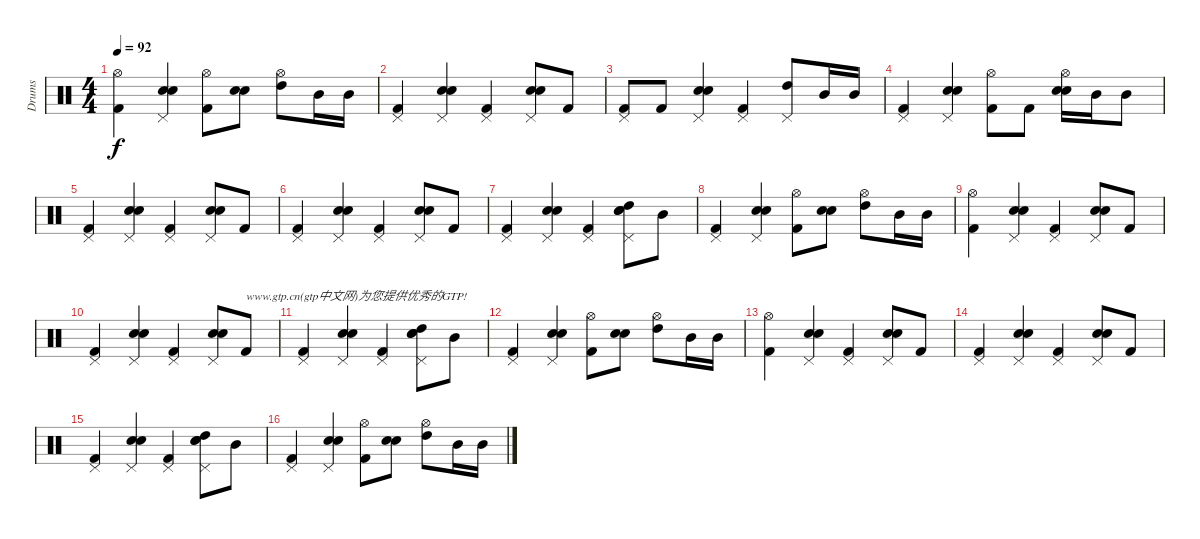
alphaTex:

\track ("Drums" "Drums") {instrument percussion}
\staff {score}
\articulation defaults
\ts (4 4)
\tempo 92
\clef neutral
\ks c
("Hi-Hat (open)" "Kick (hit) 2").4{dy f} ("Snare (hit) 2" "Electric Snare (hit)" "Pedal Hi-Hat (hit)").4 ("Hi-Hat (open)" "Kick (hit) 2").8 ("Snare (hit) 2" "Electric Snare (hit)").8 ("Hi-Hat (open)" "High Tom (hit)").8 "Mid Tom (hit)".16 "Mid Tom (hit)".16 |
("Kick (hit) 2" "Pedal Hi-Hat (hit)").4 ("Snare (hit) 2" "Electric Snare (hit)" "Pedal Hi-Hat (hit)").4 ("Kick (hit) 2" "Pedal Hi-Hat (hit)").4 ("Snare (hit) 2" "Electric Snare (hit)" "Pedal Hi-Hat (hit)").8 "Kick (hit) 2".8 |
("Kick (hit) 2" "Pedal Hi-Hat (hit)").8 "Kick (hit) 2".8 ("Snare (hit) 2" "Electric Snare (hit)" "Pedal Hi-Hat (hit)").4 ("Kick (hit) 2" "Pedal Hi-Hat (hit)").4 ("High Tom (hit)" "Pedal Hi-Hat (hit)").8 "Mid Tom (hit)".16 "Mid Tom (hit)".16 |
("Kick (hit) 2" "Pedal Hi-Hat (hit)").4 ("Snare (hit) 2" "Electric Snare (hit)" "Pedal Hi-Hat (hit)").4 ("Hi-Hat (open)" "Kick (hit) 2").8 "Kick (hit) 2".8 ("Hi-Hat (open)" "Snare (hit) 2" "Electric Snare (hit)").16 "Mid Tom (hit)".16 "Mid Tom (hit)".8 |
("Kick (hit) 2" "Pedal Hi-Hat (hit)").4 ("Snare (hit) 2" "Electric Snare (hit)" "Pedal Hi-Hat (hit)").4 ("Kick (hit) 2" "Pedal Hi-Hat (hit)").4 ("Snare (hit) 2" "Electric Snare (hit)" "Pedal Hi-Hat (hit)").8 "Kick (hit) 2".8 |
("Kick (hit) 2" "Pedal Hi-Hat (hit)").4 ("Snare (hit) 2" "Electric Snare (hit)" "Pedal Hi-Hat (hit)").4 ("Kick (hit) 2" "Pedal Hi-Hat (hit)").4 ("Snare (hit) 2" "Electric Snare (hit)" "Pedal Hi-Hat (hit)").8 "Kick (hit) 2".8 |
("Kick (hit) 2" "Pedal Hi-Hat (hit)").4 ("Snare (hit) 2" "Electric Snare (hit)" "Pedal Hi-Hat (hit)").4 ("Kick (hit) 2" "Pedal Hi-Hat (hit)").4 ("Snare (hit) 2" "Electric Snare (hit)" "High Tom (hit)" "Pedal Hi-Hat (hit)").8 "Mid Tom (hit)".8 |
("Kick (hit) 2" "Pedal Hi-Hat (hit)").4 ("Snare (hit) 2" "Electric Snare (hit)" "Pedal Hi-Hat (hit)").4 ("Hi-Hat (open)" "Kick (hit) 2").8 ("Snare (hit) 2" "Electric Snare (hit)").8 ("Hi-Hat (open)" "High Tom (hit)").8 "Mid Tom (hit)".16 "Mid Tom (hit)".16 |
("Hi-Hat (open)" "Kick (hit) 2").4 ("Snare (hit) 2" "Electric Snare (hit)" "Pedal Hi-Hat (hit)").4 ("Kick (hit) 2" "Pedal Hi-Hat (hit)").4 ("Snare (hit) 2" "Electric Snare (hit)" "Pedal Hi-Hat (hit)").8 "Kick (hit) 2".8 |
("Kick (hit) 2" "Pedal Hi-Hat (hit)").4 ("Snare (hit) 2" "Electric Snare (hit)" "Pedal Hi-Hat (hit)").4 ("Kick (hit) 2" "Pedal Hi-Hat (hit)").4 ("Snare (hit) 2" "Electric Snare (hit)" "Pedal Hi-Hat (hit)").8 "Kick (hit) 2".8{txt "www.gtp.cn(gtp中文网)为您提供优秀的GTP!"} |
("Kick (hit) 2" "Pedal Hi-Hat (hit)").4 ("Snare (hit) 2" "Electric Snare (hit)" "Pedal Hi-Hat (hit)").4 ("Kick (hit) 2" "Pedal Hi-Hat (hit)").4 ("Snare (hit) 2" "Electric Snare (hit)" "High Tom (hit)" "Pedal Hi-Hat (hit)").8 "Mid Tom (hit)".8 |
("Kick (hit) 2" "Pedal Hi-Hat (hit)").4 ("Snare (hit) 2" "Electric Snare (hit)" "Pedal Hi-Hat (hit)").4 ("Hi-Hat (open)" "Kick (hit) 2").8 ("Snare (hit) 2" "Electric Snare (hit)").8 ("Hi-Hat (open)" "High Tom (hit)").8 "Mid Tom (hit)".16 "Mid Tom (hit)".16 |
("Hi-Hat (open)" "Kick (hit) 2").4 ("Snare (hit) 2" "Electric Snare (hit)" "Pedal Hi-Hat (hit)").4 ("Kick (hit) 2" "Pedal Hi-Hat (hit)").4 ("Snare (hit) 2" "Electric Snare (hit)" "Pedal Hi-Hat (hit)").8 "Kick (hit) 2".8 |
("Kick (hit) 2" "Pedal Hi-Hat (hit)").4 ("Snare (hit) 2" "Electric Snare (hit)" "Pedal Hi-Hat (hit)").4 ("Kick (hit) 2" "Pedal Hi-Hat (hit)").4 ("Snare (hit) 2" "Electric Snare (hit)" "Pedal Hi-Hat (hit)").8 "Kick (hit) 2".8 |
("Kick (hit) 2" "Pedal Hi-Hat (hit)").4 ("Snare (hit) 2" "Electric Snare (hit)" "Pedal Hi-Hat (hit)").4 ("Kick (hit) 2" "Pedal Hi-Hat (hit)").4 ("Snare (hit) 2" "Electric Snare (hit)" "High Tom (hit)" "Pedal Hi-Hat (hit)").8 "Mid Tom (hit)".8 |
("Kick (hit) 2" "Pedal Hi-Hat (hit)").4 ("Snare (hit) 2" "Electric Snare (hit)" "Pedal Hi-Hat (hit)").4 ("Hi-Hat (open)" "Kick (hit) 2").8 ("Snare (hit) 2" "Electric Snare (hit)").8 ("Hi-Hat (open)" "High Tom (hit)").8 "Mid Tom (hit)".16 "Mid Tom (hit)".16
